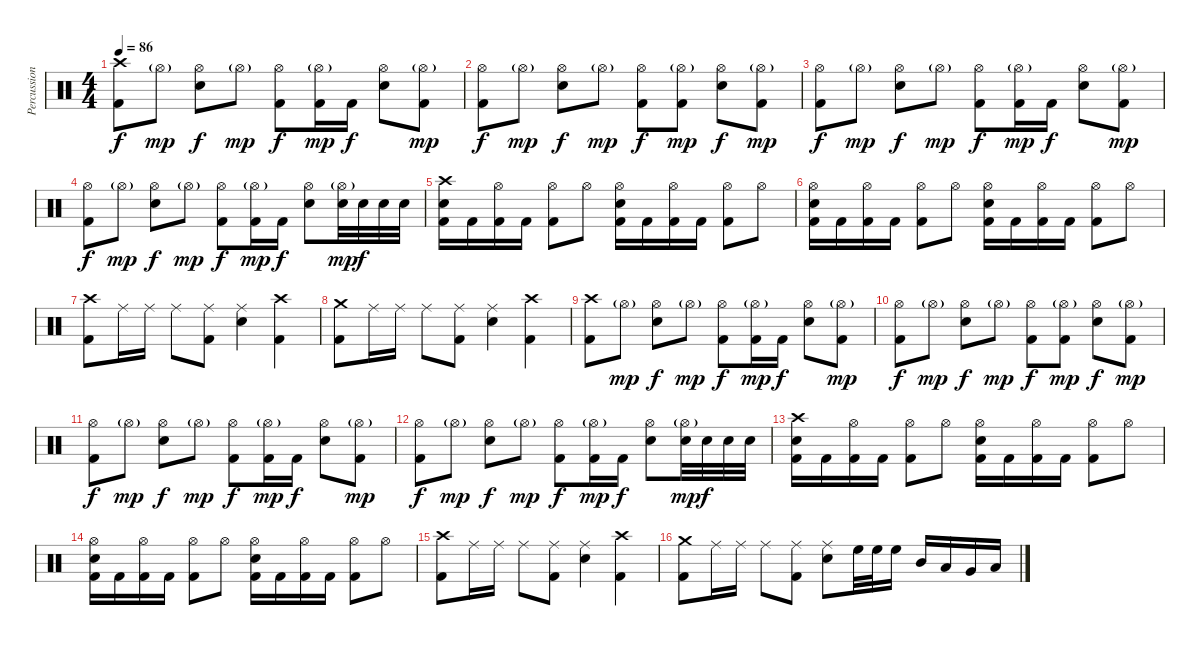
\track ("Percussion" "Percussion") {instrument percussion}
\staff {score}
\articulation defaults
\ts (4 4)
\tempo 86
\clef neutral
\ks c
("Crash high (hit)" "Kick (hit) 2").8{dy f} "Hi-Hat (open)"{g}.8{dy mp} ("Hi-Hat (open)" "Snare (hit) 2").8{dy f} "Hi-Hat (open)"{g}.8{dy mp} ("Hi-Hat (open)" "Kick (hit) 2").8{dy f} ("Hi-Hat (open)"{g} "Kick (hit) 2").16{dy mp} "Kick (hit) 2".16{dy f} ("Hi-Hat (open)" "Snare (hit) 2").8 ("Hi-Hat (open)"{g} "Kick (hit) 2").8{dy mp} |
("Hi-Hat (open)" "Kick (hit) 2").8{dy f} "Hi-Hat (open)"{g}.8{dy mp} ("Hi-Hat (open)" "Snare (hit) 2").8{dy f} "Hi-Hat (open)"{g}.8{dy mp} ("Hi-Hat (open)" "Kick (hit) 2").8{dy f} ("Hi-Hat (open)"{g} "Kick (hit) 2").8{dy mp} ("Hi-Hat (open)" "Snare (hit) 2").8{dy f} ("Hi-Hat (open)"{g} "Kick (hit) 2").8{dy mp} |
("Hi-Hat (open)" "Kick (hit) 2").8{dy f} "Hi-Hat (open)"{g}.8{dy mp} ("Hi-Hat (open)" "Snare (hit) 2").8{dy f} "Hi-Hat (open)"{g}.8{dy mp} ("Hi-Hat (open)" "Kick (hit) 2").8{dy f} ("Hi-Hat (open)"{g} "Kick (hit) 2").16{dy mp} "Kick (hit) 2".16{dy f} ("Hi-Hat (open)" "Snare (hit) 2").8 ("Hi-Hat (open)"{g} "Kick (hit) 2").8{dy mp} |
("Hi-Hat (open)" "Kick (hit) 2").8{dy f} "Hi-Hat (open)"{g}.8{dy mp} ("Hi-Hat (open)" "Snare (hit) 2").8{dy f} "Hi-Hat (open)"{g}.8{dy mp} ("Hi-Hat (open)" "Kick (hit) 2").8{dy f} ("Hi-Hat (open)"{g} "Kick (hit) 2").16{dy mp} "Kick (hit) 2".16{dy f} ("Hi-Hat (open)" "Snare (hit) 2").8 ("Hi-Hat (open)"{g} "Snare (hit) 2").32{dy mp} "Snare (hit) 2".32{dy f} "Snare (hit) 2".32 "Snare (hit) 2".32 |
("Crash high (hit)" "Snare (hit) 2" "Kick (hit) 2").16 "Kick (hit) 2".16 ("Hi-Hat (open)" "Kick (hit) 2").16 "Kick (hit) 2".16 ("Hi-Hat (open)" "Kick (hit) 2").8 "Hi-Hat (open)".8 ("Hi-Hat (open)" "Snare (hit) 2" "Kick (hit) 2").16 "Kick (hit) 2".16 ("Hi-Hat (open)" "Kick (hit) 2").16 "Kick (hit) 2".16 ("Hi-Hat (open)" "Kick (hit) 2").8 "Hi-Hat (open)".8 |
("Hi-Hat (open)" "Snare (hit) 2" "Kick (hit) 2").16 "Kick (hit) 2".16 ("Hi-Hat (open)" "Kick (hit) 2").16 "Kick (hit) 2".16 ("Hi-Hat (open)" "Kick (hit) 2").8 "Hi-Hat (open)".8 ("Hi-Hat (open)" "Snare (hit) 2" "Kick (hit) 2").16 "Kick (hit) 2".16 ("Hi-Hat (open)" "Kick (hit) 2").16 "Kick (hit) 2".16 ("Hi-Hat (open)" "Kick (hit) 2").8 "Hi-Hat (open)".8 |
("Crash high (hit)" "Kick (hit) 2").8 "Ride (middle)".16 "Ride (middle)".16 "Ride (middle)".8 ("Ride (middle)" "Kick (hit) 2").8 ("Ride (middle)" "Snare (hit) 2").4 ("Crash high (hit)" "Kick (hit) 2").4 |
("Crash medium (hit)" "Kick (hit) 2").8 "Ride (middle)".16 "Ride (middle)".16 "Ride (middle)".8 ("Ride (middle)" "Kick (hit) 2").8 ("Ride (middle)" "Snare (hit) 2").4 ("Crash high (hit)" "Kick (hit) 2").4 |
("Crash high (hit)" "Kick (hit) 2").8 "Hi-Hat (open)"{g}.8{dy mp} ("Hi-Hat (open)" "Snare (hit) 2").8{dy f} "Hi-Hat (open)"{g}.8{dy mp} ("Hi-Hat (open)" "Kick (hit) 2").8{dy f} ("Hi-Hat (open)"{g} "Kick (hit) 2").16{dy mp} "Kick (hit) 2".16{dy f} ("Hi-Hat (open)" "Snare (hit) 2").8 ("Hi-Hat (open)"{g} "Kick (hit) 2").8{dy mp} |
("Hi-Hat (open)" "Kick (hit) 2").8{dy f} "Hi-Hat (open)"{g}.8{dy mp} ("Hi-Hat (open)" "Snare (hit) 2").8{dy f} "Hi-Hat (open)"{g}.8{dy mp} ("Hi-Hat (open)" "Kick (hit) 2").8{dy f} ("Hi-Hat (open)"{g} "Kick (hit) 2").8{dy mp} ("Hi-Hat (open)" "Snare (hit) 2").8{dy f} ("Hi-Hat (open)"{g} "Kick (hit) 2").8{dy mp} |
("Hi-Hat (open)" "Kick (hit) 2").8{dy f} "Hi-Hat (open)"{g}.8{dy mp} ("Hi-Hat (open)" "Snare (hit) 2").8{dy f} "Hi-Hat (open)"{g}.8{dy mp} ("Hi-Hat (open)" "Kick (hit) 2").8{dy f} ("Hi-Hat (open)"{g} "Kick (hit) 2").16{dy mp} "Kick (hit) 2".16{dy f} ("Hi-Hat (open)" "Snare (hit) 2").8 ("Hi-Hat (open)"{g} "Kick (hit) 2").8{dy mp} |
("Hi-Hat (open)" "Kick (hit) 2").8{dy f} "Hi-Hat (open)"{g}.8{dy mp} ("Hi-Hat (open)" "Snare (hit) 2").8{dy f} "Hi-Hat (open)"{g}.8{dy mp} ("Hi-Hat (open)" "Kick (hit) 2").8{dy f} ("Hi-Hat (open)"{g} "Kick (hit) 2").16{dy mp} "Kick (hit) 2".16{dy f} ("Hi-Hat (open)" "Snare (hit) 2").8 ("Hi-Hat (open)"{g} "Snare (hit) 2").32{dy mp} "Snare (hit) 2".32{dy f} "Snare (hit) 2".32 "Snare (hit) 2".32 |
("Crash high (hit)" "Snare (hit) 2" "Kick (hit) 2").16 "Kick (hit) 2".16 ("Hi-Hat (open)" "Kick (hit) 2").16 "Kick (hit) 2".16 ("Hi-Hat (open)" "Kick (hit) 2").8 "Hi-Hat (open)".8 ("Hi-Hat (open)" "Snare (hit) 2" "Kick (hit) 2").16 "Kick (hit) 2".16 ("Hi-Hat (open)" "Kick (hit) 2").16 "Kick (hit) 2".16 ("Hi-Hat (open)" "Kick (hit) 2").8 "Hi-Hat (open)".8 |
("Hi-Hat (open)" "Snare (hit) 2" "Kick (hit) 2").16 "Kick (hit) 2".16 ("Hi-Hat (open)" "Kick (hit) 2").16 "Kick (hit) 2".16 ("Hi-Hat (open)" "Kick (hit) 2").8 "Hi-Hat (open)".8 ("Hi-Hat (open)" "Snare (hit) 2" "Kick (hit) 2").16 "Kick (hit) 2".16 ("Hi-Hat (open)" "Kick (hit) 2").16 "Kick (hit) 2".16 ("Hi-Hat (open)" "Kick (hit) 2").8 "Hi-Hat (open)".8 |
("Crash high (hit)" "Kick (hit) 2").8 "Ride (middle)".16 "Ride (middle)".16 "Ride (middle)".8 ("Ride (middle)" "Kick (hit) 2").8 ("Ride (middle)" "Snare (hit) 2").4 ("Crash high (hit)" "Kick (hit) 2").4 |
("Crash medium (hit)" "Kick (hit) 2").8 "Ride (middle)".16 "Ride (middle)".16 "Ride (middle)".8 ("Ride (middle)" "Kick (hit) 2").8 ("Ride (middle)" "Snare (hit) 2").8 "High Floor Tom (hit)".32 "High Floor Tom (hit)".32 "High Floor Tom (hit)".16 "Mid Tom (hit)".16 "Low Tom (hit)".16 "Very Low Tom (hit)".16 "Low Floor Tom (hit)".16
